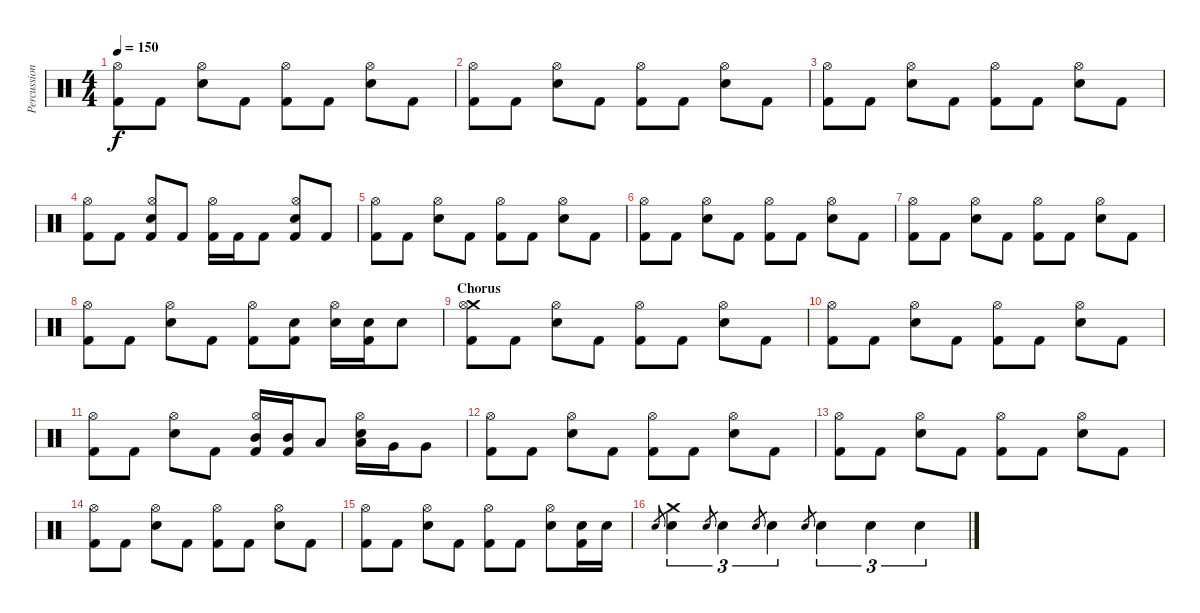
\track ("Percussion" "Percussion") {instrument percussion}
\staff {score}
\articulation defaults
\ts (4 4)
\tempo 150
\clef neutral
\ks c
("Kick (hit) 2" "Hi-Hat (open)").8{dy f} "Kick (hit) 2".8 ("Electric Snare (hit)" "Hi-Hat (open)").8 "Kick (hit) 2".8 ("Kick (hit) 2" "Hi-Hat (open)").8 "Kick (hit) 2".8 ("Electric Snare (hit)" "Hi-Hat (open)").8 "Kick (hit) 2".8 |
("Kick (hit) 2" "Hi-Hat (open)").8 "Kick (hit) 2".8 ("Electric Snare (hit)" "Hi-Hat (open)").8 "Kick (hit) 2".8 ("Kick (hit) 2" "Hi-Hat (open)").8 "Kick (hit) 2".8 ("Electric Snare (hit)" "Hi-Hat (open)").8 "Kick (hit) 2".8 |
("Kick (hit) 2" "Hi-Hat (open)").8 "Kick (hit) 2".8 ("Electric Snare (hit)" "Hi-Hat (open)").8 "Kick (hit) 2".8 ("Kick (hit) 2" "Hi-Hat (open)").8 "Kick (hit) 2".8 ("Electric Snare (hit)" "Hi-Hat (open)").8 "Kick (hit) 2".8 |
("Kick (hit) 2" "Hi-Hat (open)").8 "Kick (hit) 2".8 ("Electric Snare (hit)" "Kick (hit) 2" "Hi-Hat (open)").8 "Kick (hit) 2".8 ("Kick (hit) 2" "Hi-Hat (open)").16 "Kick (hit) 2".16 "Kick (hit) 2".8 ("Electric Snare (hit)" "Kick (hit) 2" "Hi-Hat (open)").8 "Kick (hit) 2".8 |
("Kick (hit) 2" "Hi-Hat (open)").8 "Kick (hit) 2".8 ("Electric Snare (hit)" "Hi-Hat (open)").8 "Kick (hit) 2".8 ("Kick (hit) 2" "Hi-Hat (open)").8 "Kick (hit) 2".8 ("Electric Snare (hit)" "Hi-Hat (open)").8 "Kick (hit) 2".8 |
("Kick (hit) 2" "Hi-Hat (open)").8 "Kick (hit) 2".8 ("Electric Snare (hit)" "Hi-Hat (open)").8 "Kick (hit) 2".8 ("Kick (hit) 2" "Hi-Hat (open)").8 "Kick (hit) 2".8 ("Electric Snare (hit)" "Hi-Hat (open)").8 "Kick (hit) 2".8 |
("Kick (hit) 2" "Hi-Hat (open)").8 "Kick (hit) 2".8 ("Electric Snare (hit)" "Hi-Hat (open)").8 "Kick (hit) 2".8 ("Kick (hit) 2" "Hi-Hat (open)").8 "Kick (hit) 2".8 ("Electric Snare (hit)" "Hi-Hat (open)").8 "Kick (hit) 2".8 |
("Kick (hit) 2" "Hi-Hat (open)").8 "Kick (hit) 2".8 ("Electric Snare (hit)" "Hi-Hat (open)").8 "Kick (hit) 2".8 ("Kick (hit) 2" "Hi-Hat (open)").8 ("Kick (hit) 2" "Snare (hit) 2").8 ("Snare (hit) 2" "Hi-Hat (open)").16 ("Kick (hit) 2" "Snare (hit) 2").16 "Electric Snare (hit)".8 |
\section ("" "Chorus")
("Kick (hit) 2" "Crash medium (hit)" "Hi-Hat (open)").8 "Kick (hit) 2".8 ("Electric Snare (hit)" "Hi-Hat (open)").8 "Kick (hit) 2".8 ("Kick (hit) 2" "Hi-Hat (open)").8 "Kick (hit) 2".8 ("Electric Snare (hit)" "Hi-Hat (open)").8 "Kick (hit) 2".8 |
("Kick (hit) 2" "Hi-Hat (open)").8 "Kick (hit) 2".8 ("Electric Snare (hit)" "Hi-Hat (open)").8 "Kick (hit) 2".8 ("Kick (hit) 2" "Hi-Hat (open)").8 "Kick (hit) 2".8 ("Electric Snare (hit)" "Hi-Hat (open)").8 "Kick (hit) 2".8 |
("Kick (hit) 2" "Hi-Hat (open)").8 "Kick (hit) 2".8 ("Electric Snare (hit)" "Hi-Hat (open)").8 "Kick (hit) 2".8 ("Kick (hit) 2" "Mid Tom (hit)" "Hi-Hat (open)").16 ("Kick (hit) 2" "Mid Tom (hit)").16 "Low Tom (hit)".8 ("Hi-Hat (open)" "Low Tom (hit)" "Electric Snare (hit)").16 "Very Low Tom (hit)".16 "Very Low Tom (hit)".8 |
("Kick (hit) 2" "Hi-Hat (open)").8 "Kick (hit) 2".8 ("Electric Snare (hit)" "Hi-Hat (open)").8 "Kick (hit) 2".8 ("Kick (hit) 2" "Hi-Hat (open)").8 "Kick (hit) 2".8 ("Electric Snare (hit)" "Hi-Hat (open)").8 "Kick (hit) 2".8 |
("Kick (hit) 2" "Hi-Hat (open)").8 "Kick (hit) 2".8 ("Electric Snare (hit)" "Hi-Hat (open)").8 "Kick (hit) 2".8 ("Kick (hit) 2" "Hi-Hat (open)").8 "Kick (hit) 2".8 ("Electric Snare (hit)" "Hi-Hat (open)").8 "Kick (hit) 2".8 |
("Kick (hit) 2" "Hi-Hat (open)").8 "Kick (hit) 2".8 ("Electric Snare (hit)" "Hi-Hat (open)").8 "Kick (hit) 2".8 ("Kick (hit) 2" "Hi-Hat (open)").8 "Kick (hit) 2".8 ("Electric Snare (hit)" "Hi-Hat (open)").8 "Kick (hit) 2".8 |
("Kick (hit) 2" "Hi-Hat (open)").8 "Kick (hit) 2".8 ("Electric Snare (hit)" "Hi-Hat (open)").8 "Kick (hit) 2".8 ("Kick (hit) 2" "Hi-Hat (open)").8 "Kick (hit) 2".8 ("Electric Snare (hit)" "Hi-Hat (open)").8 ("Kick (hit) 2" "Electric Snare (hit)").16 "Electric Snare (hit)".16 |
"Electric Snare (hit)".8{gr} ("Electric Snare (hit)" "Crash medium (hit)").4{tu (3 2)} "Electric Snare (hit)".8{gr} "Electric Snare (hit)".4{tu (3 2)} "Electric Snare (hit)".8{gr} "Electric Snare (hit)".4{tu (3 2)} "Electric Snare (hit)".8{gr} "Electric Snare (hit)".4{tu (3 2)} "Electric Snare (hit)".4{tu (3 2)} "Electric Snare (hit)".4{tu (3 2)}
